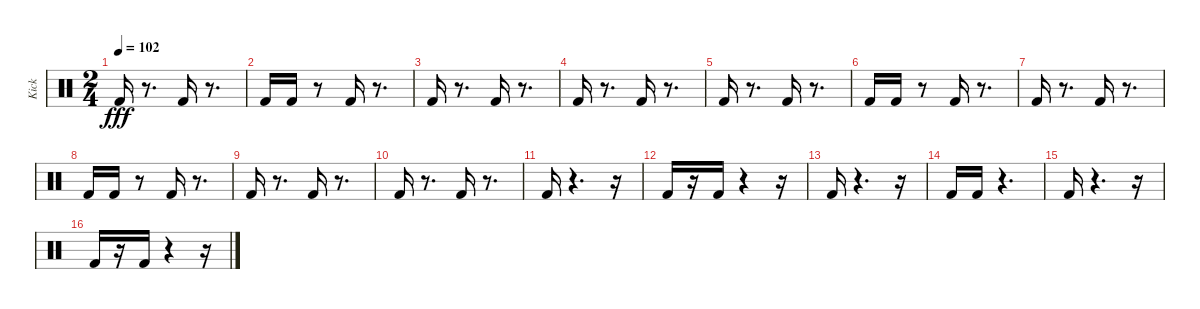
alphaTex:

\track ("Kick" "Kick") {instrument percussion}
\staff {score}
\articulation defaults
\ts (2 4)
\tempo 102
\clef neutral
\ks c "Kick (hit) 2".16{dy fff}
r.8{d} "Kick (hit) 2".16 r.8{d} |
"Kick (hit) 2".16 "Kick (hit) 2".16 r.8 "Kick (hit) 2".16 r.8{d} |
"Kick (hit) 2".16 r.8{d} "Kick (hit) 2".16 r.8{d} |
"Kick (hit) 2".16 r.8{d} "Kick (hit) 2".16 r.8{d} |
"Kick (hit) 2".16 r.8{d} "Kick (hit) 2".16 r.8{d} |
"Kick (hit) 2".16 "Kick (hit) 2".16 r.8 "Kick (hit) 2".16 r.8{d} |
"Kick (hit) 2".16 r.8{d} "Kick (hit) 2".16 r.8{d} |
"Kick (hit) 2".16 "Kick (hit) 2".16 r.8 "Kick (hit) 2".16 r.8{d} |
"Kick (hit) 2".16 r.8{d} "Kick (hit) 2".16 r.8{d} |
"Kick (hit) 2".16 r.8{d} "Kick (hit) 2".16 r.8{d} |
"Kick (hit) 2".16 r.4{d} r.16 |
"Kick (hit) 2".16 r.16 "Kick (hit) 2".16 r.4 r.16 |
"Kick (hit) 2".16 r.4{d} r.16 |
"Kick (hit) 2".16 "Kick (hit) 2".16 r.4{d} |
"Kick (hit) 2".16 r.4{d} r.16 |
"Kick (hit) 2".16 r.16 "Kick (hit) 2".16 r.4 r.16
